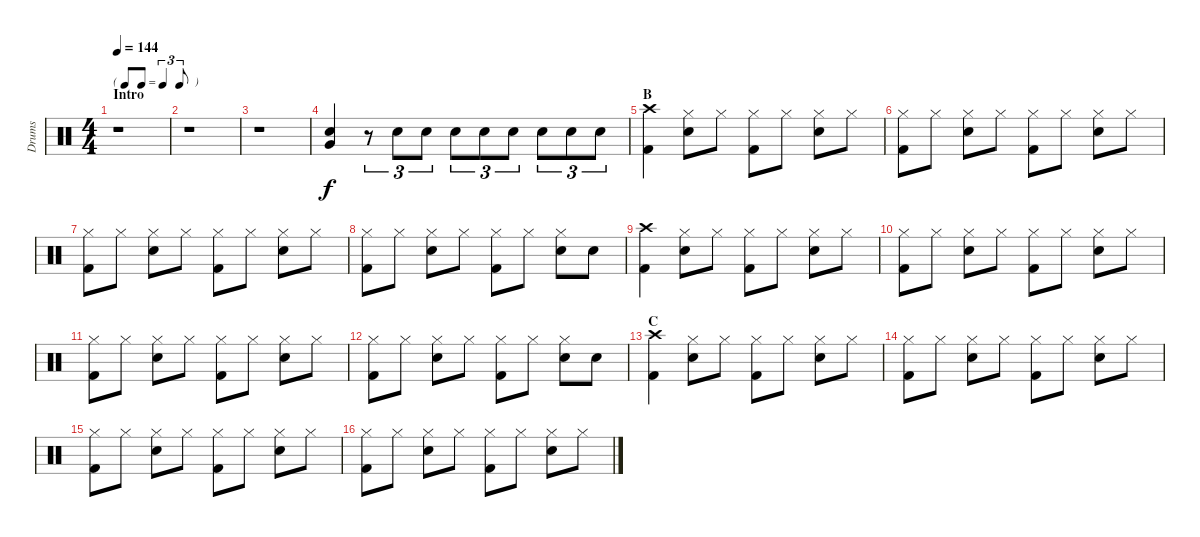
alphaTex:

\track ("Drums" "Drums") {instrument percussion}
\staff {score}
\articulation defaults
\ts (4 4)
\tf triplet8th
\section ("" "Intro")
\tempo 144
\clef neutral
\ks c
r.1{dy f} |
r.1 |
r.1 |
("Electric Snare (hit)" "Very Low Tom (hit)").4 r.8{tu (3 2)} "Electric Snare (hit)".8{tu (3 2)} "Electric Snare (hit)".8{tu (3 2)} "Electric Snare (hit)".8{tu (3 2)} "Electric Snare (hit)".8{tu (3 2)} "Electric Snare (hit)".8{tu (3 2)} "Electric Snare (hit)".8{tu (3 2)} "Electric Snare (hit)".8{tu (3 2)} "Electric Snare (hit)".8{tu (3 2)} |
\section ("" "B")
("Crash high (hit)" "Kick (hit) 2").4 ("Hi-Hat (closed)" "Electric Snare (hit)").8 "Hi-Hat (closed)".8 ("Hi-Hat (closed)" "Kick (hit) 2").8 "Hi-Hat (closed)".8 ("Hi-Hat (closed)" "Electric Snare (hit)").8 "Hi-Hat (closed)".8 |
("Hi-Hat (closed)" "Kick (hit) 2").8 "Hi-Hat (closed)".8 ("Hi-Hat (closed)" "Electric Snare (hit)").8 "Hi-Hat (closed)".8 ("Hi-Hat (closed)" "Kick (hit) 2").8 "Hi-Hat (closed)".8 ("Hi-Hat (closed)" "Electric Snare (hit)").8 "Hi-Hat (closed)".8 |
("Hi-Hat (closed)" "Kick (hit) 2").8 "Hi-Hat (closed)".8 ("Hi-Hat (closed)" "Electric Snare (hit)").8 "Hi-Hat (closed)".8 ("Hi-Hat (closed)" "Kick (hit) 2").8 "Hi-Hat (closed)".8 ("Hi-Hat (closed)" "Electric Snare (hit)").8 "Hi-Hat (closed)".8 |
("Hi-Hat (closed)" "Kick (hit) 2").8 "Hi-Hat (closed)".8 ("Hi-Hat (closed)" "Electric Snare (hit)").8 "Hi-Hat (closed)".8 ("Hi-Hat (closed)" "Kick (hit) 2").8 "Hi-Hat (closed)".8 ("Hi-Hat (closed)" "Electric Snare (hit)").8 "Electric Snare (hit)".8 |
("Crash high (hit)" "Kick (hit) 2").4 ("Hi-Hat (closed)" "Electric Snare (hit)").8 "Hi-Hat (closed)".8 ("Hi-Hat (closed)" "Kick (hit) 2").8 "Hi-Hat (closed)".8 ("Hi-Hat (closed)" "Electric Snare (hit)").8 "Hi-Hat (closed)".8 |
("Hi-Hat (closed)" "Kick (hit) 2").8 "Hi-Hat (closed)".8 ("Hi-Hat (closed)" "Electric Snare (hit)").8 "Hi-Hat (closed)".8 ("Hi-Hat (closed)" "Kick (hit) 2").8 "Hi-Hat (closed)".8 ("Hi-Hat (closed)" "Electric Snare (hit)").8 "Hi-Hat (closed)".8 |
("Hi-Hat (closed)" "Kick (hit) 2").8 "Hi-Hat (closed)".8 ("Hi-Hat (closed)" "Electric Snare (hit)").8 "Hi-Hat (closed)".8 ("Hi-Hat (closed)" "Kick (hit) 2").8 "Hi-Hat (closed)".8 ("Hi-Hat (closed)" "Electric Snare (hit)").8 "Hi-Hat (closed)".8 |
("Hi-Hat (closed)" "Kick (hit) 2").8 "Hi-Hat (closed)".8 ("Hi-Hat (closed)" "Electric Snare (hit)").8 "Hi-Hat (closed)".8 ("Hi-Hat (closed)" "Kick (hit) 2").8 "Hi-Hat (closed)".8 ("Hi-Hat (closed)" "Electric Snare (hit)").8 "Electric Snare (hit)".8 |
\section ("" "C")
("Crash high (hit)" "Kick (hit) 2").4 ("Hi-Hat (closed)" "Electric Snare (hit)").8 "Hi-Hat (closed)".8 ("Hi-Hat (closed)" "Kick (hit) 2").8 "Hi-Hat (closed)".8 ("Hi-Hat (closed)" "Electric Snare (hit)").8 "Hi-Hat (closed)".8 |
("Hi-Hat (closed)" "Kick (hit) 2").8 "Hi-Hat (closed)".8 ("Hi-Hat (closed)" "Electric Snare (hit)").8 "Hi-Hat (closed)".8 ("Hi-Hat (closed)" "Kick (hit) 2").8 "Hi-Hat (closed)".8 ("Hi-Hat (closed)" "Electric Snare (hit)").8 "Hi-Hat (closed)".8 |
("Hi-Hat (closed)" "Kick (hit) 2").8 "Hi-Hat (closed)".8 ("Hi-Hat (closed)" "Electric Snare (hit)").8 "Hi-Hat (closed)".8 ("Hi-Hat (closed)" "Kick (hit) 2").8 "Hi-Hat (closed)".8 ("Hi-Hat (closed)" "Electric Snare (hit)").8 "Hi-Hat (closed)".8 |
("Hi-Hat (closed)" "Kick (hit) 2").8 "Hi-Hat (closed)".8 ("Hi-Hat (closed)" "Electric Snare (hit)").8 "Hi-Hat (closed)".8 ("Hi-Hat (closed)" "Kick (hit) 2").8 "Hi-Hat (closed)".8 ("Hi-Hat (closed)" "Electric Snare (hit)").8 "Hi-Hat (closed)".8
